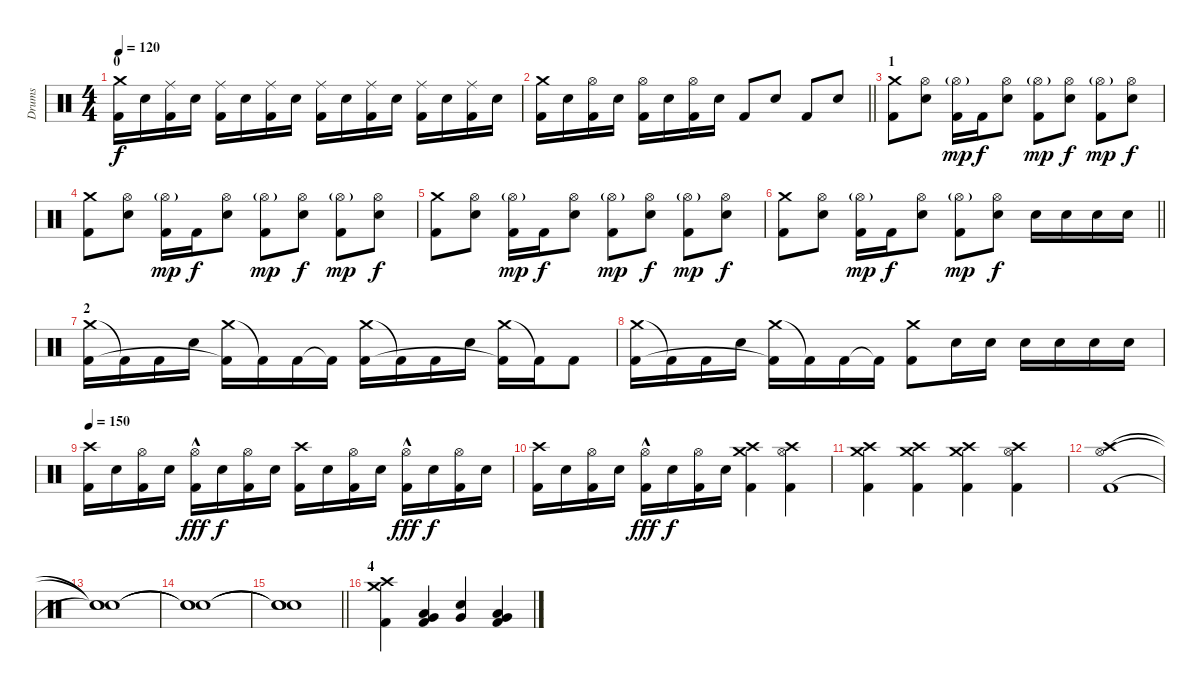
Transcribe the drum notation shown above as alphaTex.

\track ("Drums" "Drums") {instrument percussion}
\staff {score}
\articulation defaults
\ts (4 4)
\section ("" "0")
\tempo 120
\tempo 160
\tempo 120
\clef neutral
\ks c
("Crash medium (hit)" "Kick (hit) 2").16{dy f} "Electric Snare (hit)".16 ("Ride (middle)" "Kick (hit) 2").16 "Electric Snare (hit)".16 ("Ride (middle)" "Kick (hit) 2").16 "Electric Snare (hit)".16 ("Ride (middle)" "Kick (hit) 2").16 "Electric Snare (hit)".16 ("Ride (middle)" "Kick (hit) 2").16 "Electric Snare (hit)".16 ("Ride (middle)" "Kick (hit) 2").16 "Electric Snare (hit)".16 ("Ride (middle)" "Kick (hit) 2").16 "Electric Snare (hit)".16 ("Ride (middle)" "Kick (hit) 2").16 "Electric Snare (hit)".16 |
\barLineRight lightlight
("Crash medium (hit)" "Kick (hit) 2").16 "Electric Snare (hit)".16 ("Hi-Hat (open)" "Kick (hit) 2").16 "Electric Snare (hit)".16 ("Hi-Hat (open)" "Kick (hit) 2").16 "Electric Snare (hit)".16 ("Hi-Hat (open)" "Kick (hit) 2").16 "Electric Snare (hit)".16 "Kick (hit) 2".8 "Electric Snare (hit)".8 "Kick (hit) 2".8 "Electric Snare (hit)".8 |
\section ("" "1")
("Crash medium (hit)" "Kick (hit) 2").8 ("Hi-Hat (open)" "Electric Snare (hit)").8 ("Hi-Hat (open)"{g} "Kick (hit) 2").16{dy mp} "Kick (hit) 2".16{dy f} ("Hi-Hat (open)" "Electric Snare (hit)").8 ("Hi-Hat (open)"{g} "Kick (hit) 2").8{dy mp} ("Hi-Hat (open)" "Electric Snare (hit)").8{dy f} ("Hi-Hat (open)"{g} "Kick (hit) 2").8{dy mp} ("Hi-Hat (open)" "Electric Snare (hit)").8{dy f} |
("Crash medium (hit)" "Kick (hit) 2").8 ("Hi-Hat (open)" "Electric Snare (hit)").8 ("Hi-Hat (open)"{g} "Kick (hit) 2").16{dy mp} "Kick (hit) 2".16{dy f} ("Hi-Hat (open)" "Electric Snare (hit)").8 ("Hi-Hat (open)"{g} "Kick (hit) 2").8{dy mp} ("Hi-Hat (open)" "Electric Snare (hit)").8{dy f} ("Hi-Hat (open)"{g} "Kick (hit) 2").8{dy mp} ("Hi-Hat (open)" "Electric Snare (hit)").8{dy f} |
("Crash medium (hit)" "Kick (hit) 2").8 ("Hi-Hat (open)" "Electric Snare (hit)").8 ("Hi-Hat (open)"{g} "Kick (hit) 2").16{dy mp} "Kick (hit) 2".16{dy f} ("Hi-Hat (open)" "Electric Snare (hit)").8 ("Hi-Hat (open)"{g} "Kick (hit) 2").8{dy mp} ("Hi-Hat (open)" "Electric Snare (hit)").8{dy f} ("Hi-Hat (open)"{g} "Kick (hit) 2").8{dy mp} ("Hi-Hat (open)" "Electric Snare (hit)").8{dy f} |
\barLineRight lightlight
("Crash medium (hit)" "Kick (hit) 2").8 ("Hi-Hat (open)" "Electric Snare (hit)").8 ("Hi-Hat (open)"{g} "Kick (hit) 2").16{dy mp} "Kick (hit) 2".16{dy f} ("Hi-Hat (open)" "Electric Snare (hit)").8 ("Hi-Hat (open)"{g} "Kick (hit) 2").8{dy mp} ("Hi-Hat (open)" "Electric Snare (hit)").8{dy f} "Electric Snare (hit)".16 "Electric Snare (hit)".16 "Electric Snare (hit)".16 "Electric Snare (hit)".16 |
\section ("" "2")
("Crash medium (hit)" "Kick (hit) 2").16 "Kick (hit) 2"{t}.16 "Kick (hit) 2".16 "Electric Snare (hit)".16 ("Crash medium (hit)" "Kick (hit) 2"{t}).16 "Kick (hit) 2"{t}.16 "Kick (hit) 2".16 "Kick (hit) 2"{t}.16 ("Crash medium (hit)" "Kick (hit) 2").16 "Kick (hit) 2"{t}.16 "Kick (hit) 2".16 "Electric Snare (hit)".16 ("Crash medium (hit)" "Kick (hit) 2"{t}).16 "Kick (hit) 2"{t}.16 "Kick (hit) 2".8 |
("Crash medium (hit)" "Kick (hit) 2").16 "Kick (hit) 2"{t}.16 "Kick (hit) 2".16 "Electric Snare (hit)".16 ("Crash medium (hit)" "Kick (hit) 2"{t}).16 "Kick (hit) 2"{t}.16 "Kick (hit) 2".16 "Kick (hit) 2"{t}.16 ("Crash medium (hit)" "Kick (hit) 2").8 "Electric Snare (hit)".16 "Electric Snare (hit)".16 "Electric Snare (hit)".16 "Electric Snare (hit)".16 "Electric Snare (hit)".16 "Electric Snare (hit)".16 |
\tempo 150
("Crash high (hit)" "Kick (hit) 2").16 "Electric Snare (hit)".16 ("Hi-Hat (open)" "Kick (hit) 2").16 "Electric Snare (hit)".16 ("Hi-Hat (open)"{hac} "Kick (hit) 2").16{dy fff} "Electric Snare (hit)".16{dy f} ("Hi-Hat (open)" "Kick (hit) 2").16 "Electric Snare (hit)".16 ("Crash high (hit)" "Kick (hit) 2").16 "Electric Snare (hit)".16 ("Hi-Hat (open)" "Kick (hit) 2").16 "Electric Snare (hit)".16 ("Hi-Hat (open)"{hac} "Kick (hit) 2").16{dy fff} "Electric Snare (hit)".16{dy f} ("Hi-Hat (open)" "Kick (hit) 2").16 "Electric Snare (hit)".16 |
("Crash high (hit)" "Kick (hit) 2").16 "Electric Snare (hit)".16 ("Hi-Hat (open)" "Kick (hit) 2").16 "Electric Snare (hit)".16 ("Hi-Hat (open)"{hac} "Kick (hit) 2").16{dy fff} "Electric Snare (hit)".16{dy f} ("Hi-Hat (open)" "Kick (hit) 2").16 "Electric Snare (hit)".16 ("Crash high (hit)" "Crash medium (hit)" "Kick (hit) 2").4 ("Crash high (hit)" "Hi-Hat (open)" "Kick (hit) 2").4 |
("Crash high (hit)" "Crash medium (hit)" "Kick (hit) 2").4 ("Crash high (hit)" "Crash medium (hit)" "Kick (hit) 2").4 ("Crash high (hit)" "Crash medium (hit)" "Kick (hit) 2").4 ("Crash high (hit)" "Hi-Hat (open)" "Kick (hit) 2").4 |
("Crash high (hit)" "Hi-Hat (open)" "Kick (hit) 2").1 |
("Snare (hit)"{t} "Snare (hit)"{t} "Snare (hit)"{t}).1 |
("Snare (hit)"{t} "Snare (hit)"{t} "Snare (hit)"{t}).1 |
\barLineRight lightlight
("Snare (hit)"{t} "Snare (hit)"{t} "Snare (hit)"{t}).1 |
\section ("" "4")
("Crash medium (hit)" "Crash high (hit)" "Kick (hit) 2").4 ("Very Low Tom (hit)" "Low Floor Tom (hit)" "Kick (hit) 2").4 ("Electric Snare (hit)" "Very Low Tom (hit)").4 ("Very Low Tom (hit)" "Low Floor Tom (hit)" "Kick (hit) 2").4
